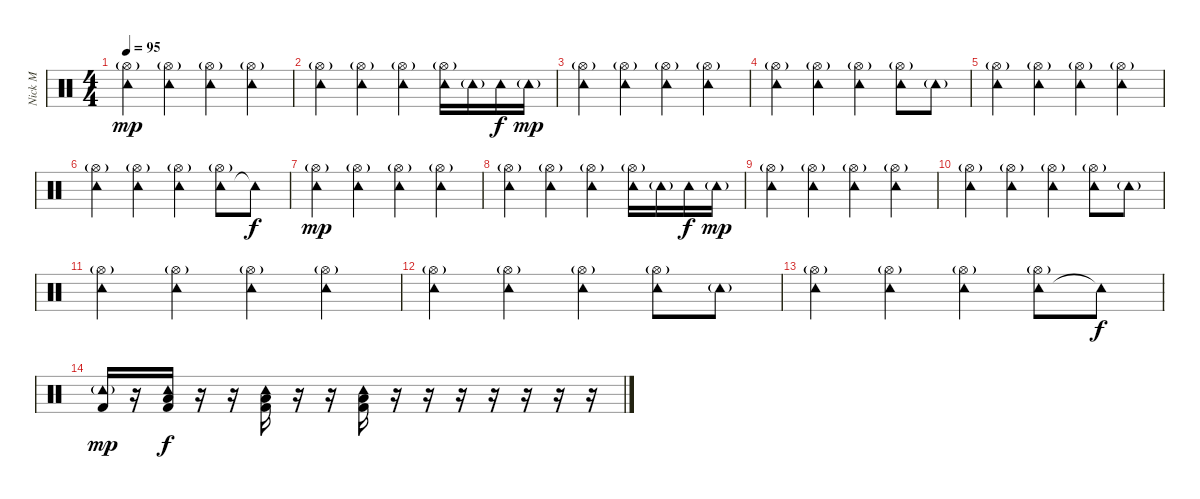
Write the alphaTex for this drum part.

\track ("Nick M" "Nick M") {instrument percussion}
\staff {score}
\articulation defaults
\ts (4 4)
\tempo 95
\clef neutral
\ks c
("Tambourine (hit)" "Hi-Hat (open)"{g}).4{dy mp} ("Tambourine (hit)" "Hi-Hat (open)"{g}).4 ("Tambourine (hit)" "Hi-Hat (open)"{g}).4 ("Tambourine (hit)" "Hi-Hat (open)"{g}).4 |
("Tambourine (hit)" "Hi-Hat (open)"{g}).4 ("Tambourine (hit)" "Hi-Hat (open)"{g}).4 ("Tambourine (hit)" "Hi-Hat (open)"{g}).4 ("Tambourine (hit)" "Hi-Hat (open)"{g}).16 "Tambourine (hit)"{g}.16 "Tambourine (hit)".16{dy f} "Tambourine (hit)"{g}.16{dy mp} |
("Tambourine (hit)" "Hi-Hat (open)"{g}).4 ("Tambourine (hit)" "Hi-Hat (open)"{g}).4 ("Tambourine (hit)" "Hi-Hat (open)"{g}).4 ("Tambourine (hit)" "Hi-Hat (open)"{g}).4 |
("Tambourine (hit)" "Hi-Hat (open)"{g}).4 ("Tambourine (hit)" "Hi-Hat (open)"{g}).4 ("Tambourine (hit)" "Hi-Hat (open)"{g}).4 ("Tambourine (hit)" "Hi-Hat (open)"{g}).8 "Tambourine (hit)"{g}.8 |
("Tambourine (hit)" "Hi-Hat (open)"{g}).4 ("Tambourine (hit)" "Hi-Hat (open)"{g}).4 ("Tambourine (hit)" "Hi-Hat (open)"{g}).4 ("Tambourine (hit)" "Hi-Hat (open)"{g}).4 |
("Tambourine (hit)" "Hi-Hat (open)"{g}).4 ("Tambourine (hit)" "Hi-Hat (open)"{g}).4 ("Tambourine (hit)" "Hi-Hat (open)"{g}).4 ("Tambourine (hit)" "Hi-Hat (open)"{g}).8 "Tambourine (hit)"{t}.8{dy f} |
("Tambourine (hit)" "Hi-Hat (open)"{g}).4{dy mp} ("Tambourine (hit)" "Hi-Hat (open)"{g}).4 ("Tambourine (hit)" "Hi-Hat (open)"{g}).4 ("Tambourine (hit)" "Hi-Hat (open)"{g}).4 |
("Tambourine (hit)" "Hi-Hat (open)"{g}).4 ("Tambourine (hit)" "Hi-Hat (open)"{g}).4 ("Tambourine (hit)" "Hi-Hat (open)"{g}).4 ("Tambourine (hit)" "Hi-Hat (open)"{g}).16 "Tambourine (hit)"{g}.16 "Tambourine (hit)".16{dy f} "Tambourine (hit)"{g}.16{dy mp} |
("Tambourine (hit)" "Hi-Hat (open)"{g}).4 ("Tambourine (hit)" "Hi-Hat (open)"{g}).4 ("Tambourine (hit)" "Hi-Hat (open)"{g}).4 ("Tambourine (hit)" "Hi-Hat (open)"{g}).4 |
("Tambourine (hit)" "Hi-Hat (open)"{g}).4 ("Tambourine (hit)" "Hi-Hat (open)"{g}).4 ("Tambourine (hit)" "Hi-Hat (open)"{g}).4 ("Tambourine (hit)" "Hi-Hat (open)"{g}).8 "Tambourine (hit)"{g}.8 |
("Tambourine (hit)" "Hi-Hat (open)"{g}).4 ("Tambourine (hit)" "Hi-Hat (open)"{g}).4 ("Tambourine (hit)" "Hi-Hat (open)"{g}).4 ("Tambourine (hit)" "Hi-Hat (open)"{g}).4 |
("Tambourine (hit)" "Hi-Hat (open)"{g}).4 ("Tambourine (hit)" "Hi-Hat (open)"{g}).4 ("Tambourine (hit)" "Hi-Hat (open)"{g}).4 ("Tambourine (hit)" "Hi-Hat (open)"{g}).8 "Tambourine (hit)"{g}.8 |
("Tambourine (hit)" "Hi-Hat (open)"{g}).4 ("Tambourine (hit)" "Hi-Hat (open)"{g}).4 ("Tambourine (hit)" "Hi-Hat (open)"{g}).4 ("Tambourine (hit)" "Hi-Hat (open)"{g}).8 "Tambourine (hit)"{t}.8{dy f} |
("Tambourine (hit)"{g} "Kick (hit) 2").16{dy mp} r.16 ("Tambourine (hit)" "Low Floor Tom (hit)" "Kick (hit) 2").16{dy f} r.16 r.16 ("Tambourine (hit)" "Low Floor Tom (hit)" "Kick (hit) 2").16 r.16 r.16 ("Tambourine (hit)" "Low Floor Tom (hit)" "Kick (hit) 2").16 r.16 r.16 r.16 r.16 r.16 r.16 r.16
